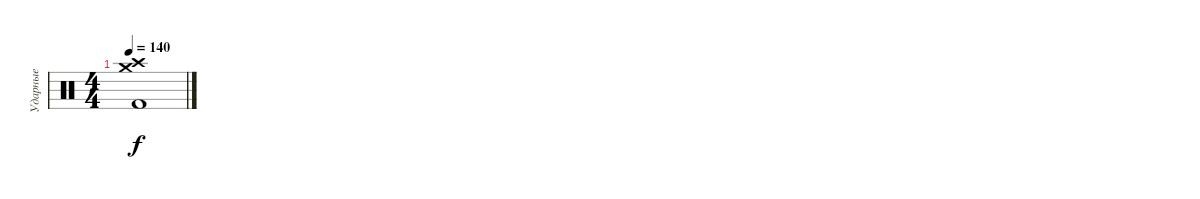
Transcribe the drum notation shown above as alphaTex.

\track ("Ударные" "Ударные") {instrument percussion}
\staff {score}
\articulation defaults
\ts (4 4)
\tempo 140
\clef neutral
\ks c
("Crash medium (hit)" "Crash high (hit)" "Kick (hit) 2").1{dy f}
